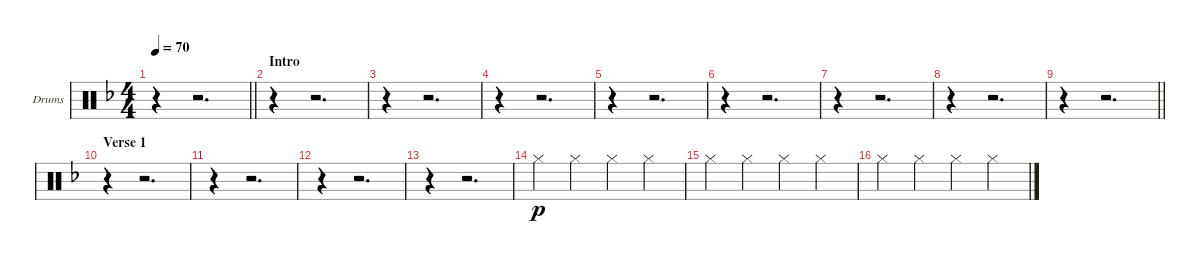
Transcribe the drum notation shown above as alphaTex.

\bracketExtendMode groupsimilarinstruments
\firstSystemTrackNameOrientation horizontal
\otherSystemsTrackNameOrientation horizontal
\track ("Drumkit" "Drums") {instrument percussion}
\staff {score}
\articulation defaults
\ts (4 4)
\beaming (8 2 2 2 2)
\tempo 70
\clef neutral
\barLineRight lightlight
\ks dminor
r.4{dy p} r.2{d} |
\section ("" "Intro")
r.4 r.2{d} |
r.4 r.2{d} |
r.4 r.2{d} |
r.4 r.2{d} |
r.4 r.2{d} |
r.4 r.2{d} |
r.4 r.2{d} |
\barLineRight lightlight
r.4 r.2{d} |
\section ("" "Verse 1")
r.4 r.2{d} |
r.4 r.2{d} |
r.4 r.2{d} |
r.4 r.2{d} |
"Hi-Hat (closed)".4 "Hi-Hat (closed)".4 "Hi-Hat (closed)".4 "Hi-Hat (closed)".4 |
"Hi-Hat (closed)".4 "Hi-Hat (closed)".4 "Hi-Hat (closed)".4 "Hi-Hat (closed)".4 |
"Hi-Hat (closed)".4 "Hi-Hat (closed)".4 "Hi-Hat (closed)".4 "Hi-Hat (closed)".4
